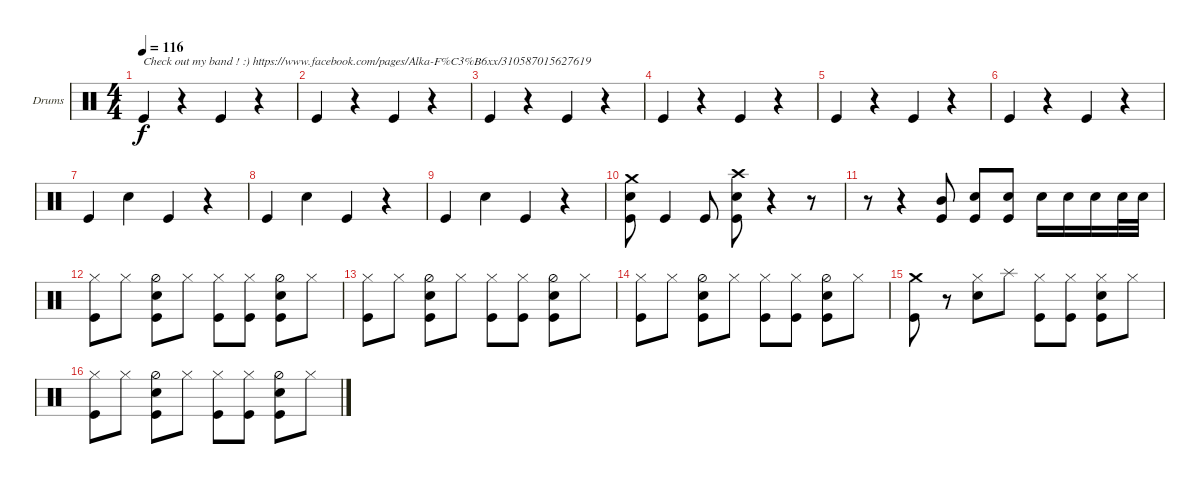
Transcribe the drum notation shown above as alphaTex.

\bracketExtendMode groupsimilarinstruments
\firstSystemTrackNameOrientation horizontal
\otherSystemsTrackNameOrientation horizontal
\track ("Mick Brown" "Drums") {instrument percussion}
\staff {score}
\articulation defaults
\ts (4 4)
\tempo 116
\clef neutral
\ks c "Kick (hit)".4{txt "Check out my band ! :) https://www.facebook.com/pages/Alka-F%C3%B6xx/310587015627619" dy f}
r.4 "Kick (hit)".4 r.4 |
"Kick (hit)".4 r.4 "Kick (hit)".4 r.4 |
"Kick (hit)".4 r.4 "Kick (hit)".4 r.4 |
"Kick (hit)".4 r.4 "Kick (hit)".4 r.4 |
"Kick (hit)".4 r.4 "Kick (hit)".4 r.4 |
"Kick (hit)".4 r.4 "Kick (hit)".4 r.4 |
"Kick (hit)".4 "Snare (hit) 2".4 "Kick (hit)".4 r.4 |
"Kick (hit)".4 "Snare (hit) 2".4 "Kick (hit)".4 r.4 |
"Kick (hit)".4 "Snare (hit) 2".4 "Kick (hit)".4 r.4 |
("Snare (hit) 2" "Kick (hit)" "Crash medium (hit)").8 "Kick (hit)".4 "Kick (hit)".8 ("Snare (hit) 2" "Kick (hit)" "Crash high (hit)").8 r.4 r.8 |
r.8 r.4 ("Mid Tom (hit)" "Kick (hit)").8 ("Snare (hit) 2" "Kick (hit)").8 ("Snare (hit) 2" "Kick (hit)").8 "Snare (hit) 2".16 "Snare (hit) 2".16 "Snare (hit) 2".16 "Snare (hit) 2".32 "Snare (hit) 2".32 |
("Kick (hit)" "Hi-Hat (closed)").8 "Hi-Hat (closed)".8 ("Snare (hit) 2" "Kick (hit)" "Hi-Hat (half)").8 "Hi-Hat (closed)".8 ("Kick (hit)" "Hi-Hat (closed)").8 ("Kick (hit)" "Hi-Hat (closed)").8 ("Snare (hit) 2" "Kick (hit)" "Hi-Hat (half)").8 "Hi-Hat (closed)".8 |
("Kick (hit)" "Hi-Hat (closed)").8 "Hi-Hat (closed)".8 ("Snare (hit) 2" "Kick (hit)" "Hi-Hat (half)").8 "Hi-Hat (closed)".8 ("Kick (hit)" "Hi-Hat (closed)").8 ("Kick (hit)" "Hi-Hat (closed)").8 ("Snare (hit) 2" "Kick (hit)" "Hi-Hat (half)").8 "Hi-Hat (closed)".8 |
("Kick (hit)" "Hi-Hat (closed)").8 "Hi-Hat (closed)".8 ("Snare (hit) 2" "Kick (hit)" "Hi-Hat (half)").8 "Hi-Hat (closed)".8 ("Kick (hit)" "Hi-Hat (closed)").8 ("Kick (hit)" "Hi-Hat (closed)").8 ("Snare (hit) 2" "Kick (hit)" "Hi-Hat (half)").8 "Hi-Hat (closed)".8 |
("Kick (hit)" "Crash medium (hit)").8 r.8 ("Snare (hit) 2" "Hi-Hat (closed)").8 "Splash (hit)".8 ("Kick (hit)" "Hi-Hat (closed)").8 ("Kick (hit)" "Hi-Hat (closed)").8 ("Snare (hit) 2" "Kick (hit)" "Hi-Hat (closed)").8 "Hi-Hat (closed)".8 |
("Kick (hit)" "Hi-Hat (closed)").8 "Hi-Hat (closed)".8 ("Snare (hit) 2" "Kick (hit)" "Hi-Hat (half)").8 "Hi-Hat (closed)".8 ("Kick (hit)" "Hi-Hat (closed)").8 ("Kick (hit)" "Hi-Hat (closed)").8 ("Snare (hit) 2" "Kick (hit)" "Hi-Hat (half)").8 "Hi-Hat (closed)".8
